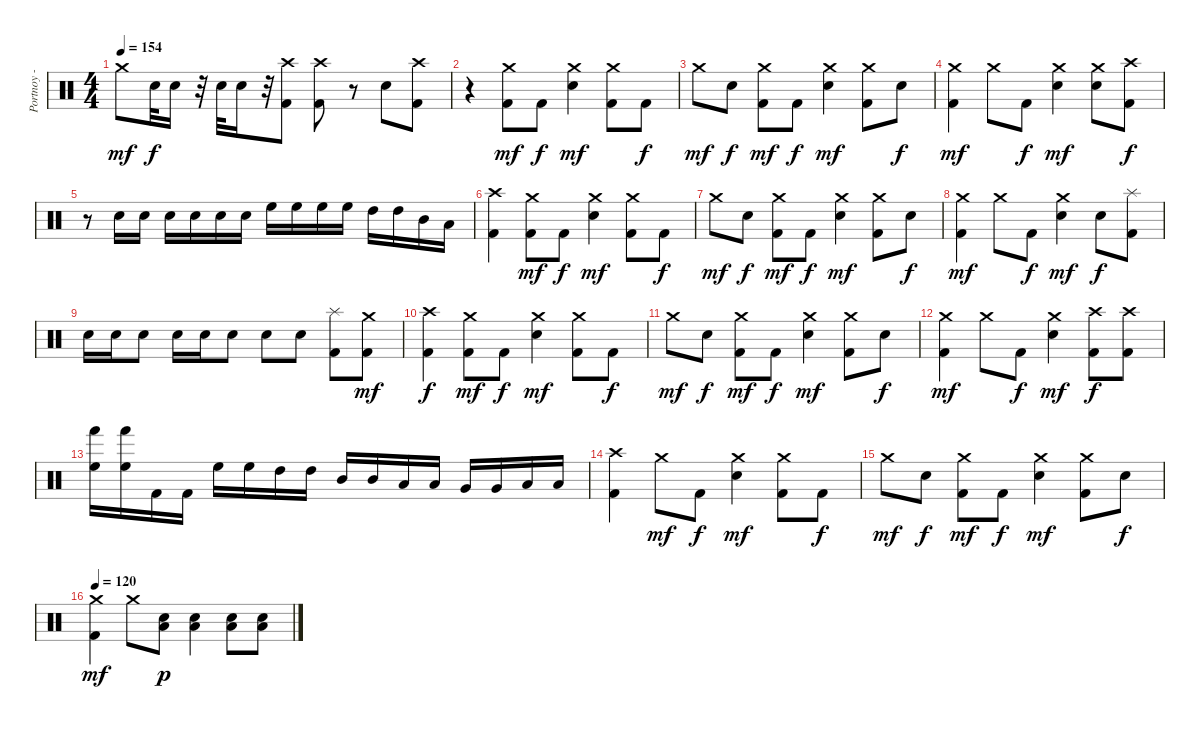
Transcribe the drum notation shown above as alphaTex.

\track ("Portnoy - Drums" "Portnoy - ") {instrument percussion}
\staff {score}
\articulation defaults
\ts (4 4)
\tempo 154
\clef neutral
\ks c "Crash medium (hit)".8{dy mf} "Electric Snare (hit)".32{dy f} "Electric Snare (hit)".16
r.32 "Electric Snare (hit)".32 "Electric Snare (hit)".16 r.32 ("Kick (hit) 2" "Crash high (hit)").8 ("Kick (hit) 2" "Crash high (hit)").8 r.8 "Electric Snare (hit)".8 ("Crash high (hit)" "Kick (hit) 2").8 |
r.4 ("Kick (hit) 2" "Crash medium (hit)").8{dy mf} "Kick (hit) 2".8{dy f} ("Electric Snare (hit)" "Crash medium (hit)").4{dy mf} ("Kick (hit) 2" "Crash medium (hit)").8 "Kick (hit) 2".8{dy f} |
"Crash medium (hit)".8{dy mf} "Electric Snare (hit)".8{dy f} ("Kick (hit) 2" "Crash medium (hit)").8{dy mf} "Kick (hit) 2".8{dy f} ("Electric Snare (hit)" "Crash medium (hit)").4{dy mf} ("Kick (hit) 2" "Crash medium (hit)").8 "Electric Snare (hit)".8{dy f} |
("Kick (hit) 2" "Crash medium (hit)").4{dy mf} "Crash medium (hit)".8 "Kick (hit) 2".8{dy f} ("Electric Snare (hit)" "Crash medium (hit)").4{dy mf} ("Electric Snare (hit)" "Crash medium (hit)").8 ("Kick (hit) 2" "Crash high (hit)").8{dy f} |
r.8 "Electric Snare (hit)".16 "Electric Snare (hit)".16 "Electric Snare (hit)".16 "Electric Snare (hit)".16 "Electric Snare (hit)".16 "Electric Snare (hit)".16 "High Floor Tom (hit)".16 "High Floor Tom (hit)".16 "High Floor Tom (hit)".16 "High Floor Tom (hit)".16 "High Tom (hit)".16 "High Tom (hit)".16 "Mid Tom (hit)".16 "Low Tom (hit)".16 |
("Crash high (hit)" "Kick (hit) 2").4 ("Kick (hit) 2" "Crash medium (hit)").8{dy mf} "Kick (hit) 2".8{dy f} ("Electric Snare (hit)" "Crash medium (hit)").4{dy mf} ("Kick (hit) 2" "Crash medium (hit)").8 "Kick (hit) 2".8{dy f} |
"Crash medium (hit)".8{dy mf} "Electric Snare (hit)".8{dy f} ("Kick (hit) 2" "Crash medium (hit)").8{dy mf} "Kick (hit) 2".8{dy f} ("Electric Snare (hit)" "Crash medium (hit)").4{dy mf} ("Kick (hit) 2" "Crash medium (hit)").8 "Electric Snare (hit)".8{dy f} |
("Kick (hit) 2" "Crash medium (hit)").4{dy mf} "Crash medium (hit)".8 "Kick (hit) 2".8{dy f} ("Electric Snare (hit)" "Crash medium (hit)").4{dy mf} "Electric Snare (hit)".8{dy f} ("Kick (hit) 2" "Splash (hit)").8 |
"Electric Snare (hit)".16 "Electric Snare (hit)".16 "Electric Snare (hit)".8 "Electric Snare (hit)".16 "Electric Snare (hit)".16 "Electric Snare (hit)".8 "Electric Snare (hit)".8 "Electric Snare (hit)".8 ("Kick (hit) 2" "Splash (hit)").8 ("Kick (hit) 2" "Crash medium (hit)").8{dy mf} |
("Kick (hit) 2" "Crash high (hit)").4{dy f} ("Kick (hit) 2" "Crash medium (hit)").8{dy mf} "Kick (hit) 2".8{dy f} ("Electric Snare (hit)" "Crash medium (hit)").4{dy mf} ("Kick (hit) 2" "Crash medium (hit)").8 "Kick (hit) 2".8{dy f} |
"Crash medium (hit)".8{dy mf} "Electric Snare (hit)".8{dy f} ("Kick (hit) 2" "Crash medium (hit)").8{dy mf} "Kick (hit) 2".8{dy f} ("Electric Snare (hit)" "Crash medium (hit)").4{dy mf} ("Kick (hit) 2" "Crash medium (hit)").8 "Electric Snare (hit)".8{dy f} |
("Kick (hit) 2" "Crash medium (hit)").4{dy mf} "Crash medium (hit)".8 "Kick (hit) 2".8{dy f} ("Electric Snare (hit)" "Crash medium (hit)").4{dy mf} ("Kick (hit) 2" "Crash high (hit)").8{dy f} ("Kick (hit) 2" "Crash high (hit)").8 |
("High Floor Tom (hit)" "Hand (hit)").16 ("High Floor Tom (hit)" "Hand (hit)").16 "Kick (hit) 2".16 "Kick (hit) 2".16 "High Floor Tom (hit)".16 "High Floor Tom (hit)".16 "High Tom (hit)".16 "High Tom (hit)".16 "Mid Tom (hit)".16 "Mid Tom (hit)".16 "Low Tom (hit)".16 "Low Tom (hit)".16 "Very Low Tom (hit)".16 "Very Low Tom (hit)".16 "Low Floor Tom (hit)".16 "Low Floor Tom (hit)".16 |
("Crash high (hit)" "Kick (hit) 2").4 "Crash medium (hit)".8{dy mf} "Kick (hit) 2".8{dy f} ("Electric Snare (hit)" "Crash medium (hit)").4{dy mf} ("Kick (hit) 2" "Crash medium (hit)").8 "Kick (hit) 2".8{dy f} |
"Crash medium (hit)".8{dy mf} "Electric Snare (hit)".8{dy f} ("Kick (hit) 2" "Crash medium (hit)").8{dy mf} "Kick (hit) 2".8{dy f} ("Electric Snare (hit)" "Crash medium (hit)").4{dy mf} ("Kick (hit) 2" "Crash medium (hit)").8 "Electric Snare (hit)".8{dy f} |
\tempo 120
("Kick (hit) 2" "Crash medium (hit)").4{dy mf} "Crash medium (hit)".8 ("Electric Snare (hit)" "Low Tom (hit)").8{dy p} ("Electric Snare (hit)" "Low Tom (hit)").4 ("Electric Snare (hit)" "Low Tom (hit)").8 ("Electric Snare (hit)" "Low Tom (hit)").8
